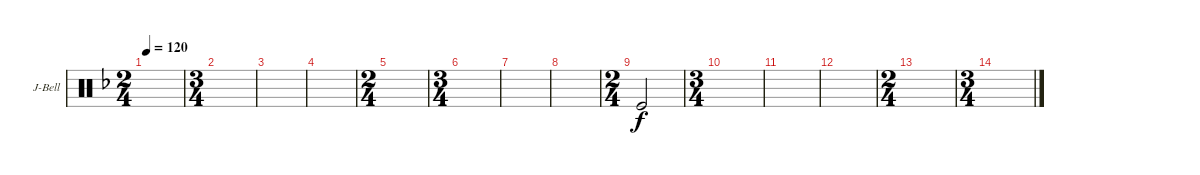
\defaultSystemsLayout 4
\bracketExtendMode groupsimilarinstruments
\firstSystemTrackNameOrientation horizontal
\otherSystemsTrackNameOrientation horizontal
\track ("Jingle Bell" "J-Bell") {instrument percussion}
\staff {score}
\articulation defaults
\ts (2 4)
\tempo 120
\clef neutral
\scale
0.5
\ks f
|
\ts (3 4)
\scale
0.5 |
\scale
0.25 |
\scale
0.25 |
\ts (2 4)
\scale
0.4 |
\ts (3 4)
\scale
0.4 |
\scale
0.2 |
\scale
0.2 |
\ts (2 4)
\scale
0.4 "Kick (hit)".2 |
\ts (3 4)
\scale
0.4 |
\scale
0.25 |
\scale
0.25 |
\ts (2 4)
\scale
0.5 |
\ts (3 4)
\scale
0.5 |
\scale
0.25 |
\scale
0.25
